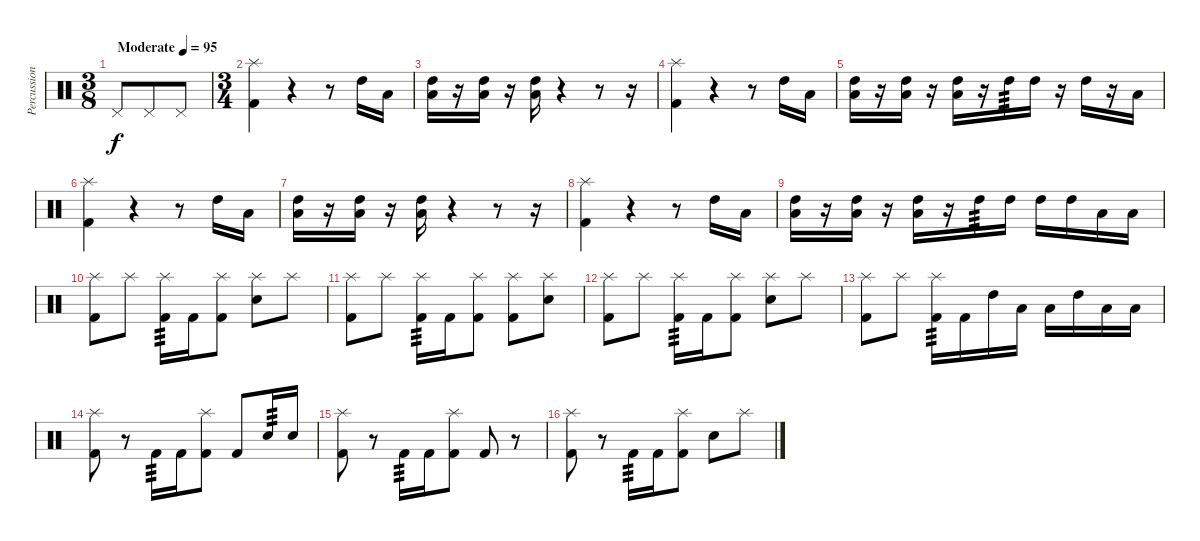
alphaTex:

\track ("Percussion" "Percussion") {instrument percussion}
\staff {score}
\articulation defaults
\ts (3 8)
\tempo (95 "Moderate")
\clef neutral
\ks c "Pedal Hi-Hat (hit)".8{dy f} "Pedal Hi-Hat (hit)".8 "Pedal Hi-Hat (hit)".8
|
\ts (3 4)
("Splash (hit)" "Kick (hit) 2").4 r.4 r.8 "High Tom (hit)".16 "Low Tom (hit)".16 |
("High Tom (hit)" "Low Floor Tom (hit)").16 r.16 ("High Tom (hit)" "Low Floor Tom (hit)").16 r.16 ("High Tom (hit)" "Low Floor Tom (hit)").16 r.4 r.8 r.16 |
("Splash (hit)" "Kick (hit) 2").4 r.4 r.8 "High Tom (hit)".16 "Low Tom (hit)".16 |
("High Tom (hit)" "Low Floor Tom (hit)").16 r.16 ("High Tom (hit)" "Low Floor Tom (hit)").16 r.16 ("High Tom (hit)" "Low Floor Tom (hit)").16 r.16 "High Tom (hit)".16{tp 3} "High Tom (hit)".16 r.16 "High Tom (hit)".16 r.16 "Low Floor Tom (hit)".16 |
("Splash (hit)" "Kick (hit) 2").4 r.4 r.8 "High Tom (hit)".16 "Low Tom (hit)".16 |
("High Tom (hit)" "Low Floor Tom (hit)").16 r.16 ("High Tom (hit)" "Low Floor Tom (hit)").16 r.16 ("High Tom (hit)" "Low Floor Tom (hit)").16 r.4 r.8 r.16 |
("Splash (hit)" "Kick (hit) 2").4 r.4 r.8 "High Tom (hit)".16 "Low Tom (hit)".16 |
("High Tom (hit)" "Low Floor Tom (hit)").16 r.16 ("High Tom (hit)" "Low Floor Tom (hit)").16 r.16 ("High Tom (hit)" "Low Floor Tom (hit)").16 r.16 "High Tom (hit)".16{tp 3} "High Tom (hit)".16 "High Tom (hit)".16 "High Tom (hit)".16 "Low Tom (hit)".16 "Low Floor Tom (hit)".16 |
("Splash (hit)" "Kick (hit) 2").8 "Splash (hit)".8 ("Splash (hit)" "Kick (hit) 2").16{tp 3} "Kick (hit) 2".16 ("Splash (hit)" "Kick (hit) 2").8 ("Splash (hit)" "Electric Snare (hit)").8 "Splash (hit)".8 |
("Splash (hit)" "Kick (hit) 2").8 "Splash (hit)".8 ("Splash (hit)" "Kick (hit) 2").16{tp 3} "Kick (hit) 2".16 ("Splash (hit)" "Kick (hit) 2").8 ("Splash (hit)" "Kick (hit) 2").8 ("Splash (hit)" "Electric Snare (hit)").8 |
("Splash (hit)" "Kick (hit) 2").8 "Splash (hit)".8 ("Splash (hit)" "Kick (hit) 2").16{tp 3} "Kick (hit) 2".16 ("Splash (hit)" "Kick (hit) 2").8 ("Splash (hit)" "Electric Snare (hit)").8 "Splash (hit)".8 |
("Splash (hit)" "Kick (hit) 2").8 "Splash (hit)".8 ("Splash (hit)" "Kick (hit) 2").16{tp 3} "Kick (hit) 2".16 "High Tom (hit)".16 "Low Tom (hit)".16 "Low Floor Tom (hit)".16 "High Tom (hit)".16 "Low Tom (hit)".16 "Low Floor Tom (hit)".16 |
("Splash (hit)" "Kick (hit) 2").8 r.8 "Kick (hit) 2".16{tp 3} "Kick (hit) 2".16 ("Splash (hit)" "Kick (hit) 2").8 "Kick (hit) 2".8 "Electric Snare (hit)".16{tp 3} "Electric Snare (hit)".16 |
("Splash (hit)" "Kick (hit) 2").8 r.8 "Kick (hit) 2".16{tp 3} "Kick (hit) 2".16 ("Splash (hit)" "Kick (hit) 2").8 "Kick (hit) 2".8 r.8 |
("Splash (hit)" "Kick (hit) 2").8 r.8 "Kick (hit) 2".16{tp 3} "Kick (hit) 2".16 ("Splash (hit)" "Kick (hit) 2").8 "Electric Snare (hit)".8 "Splash (hit)".8
